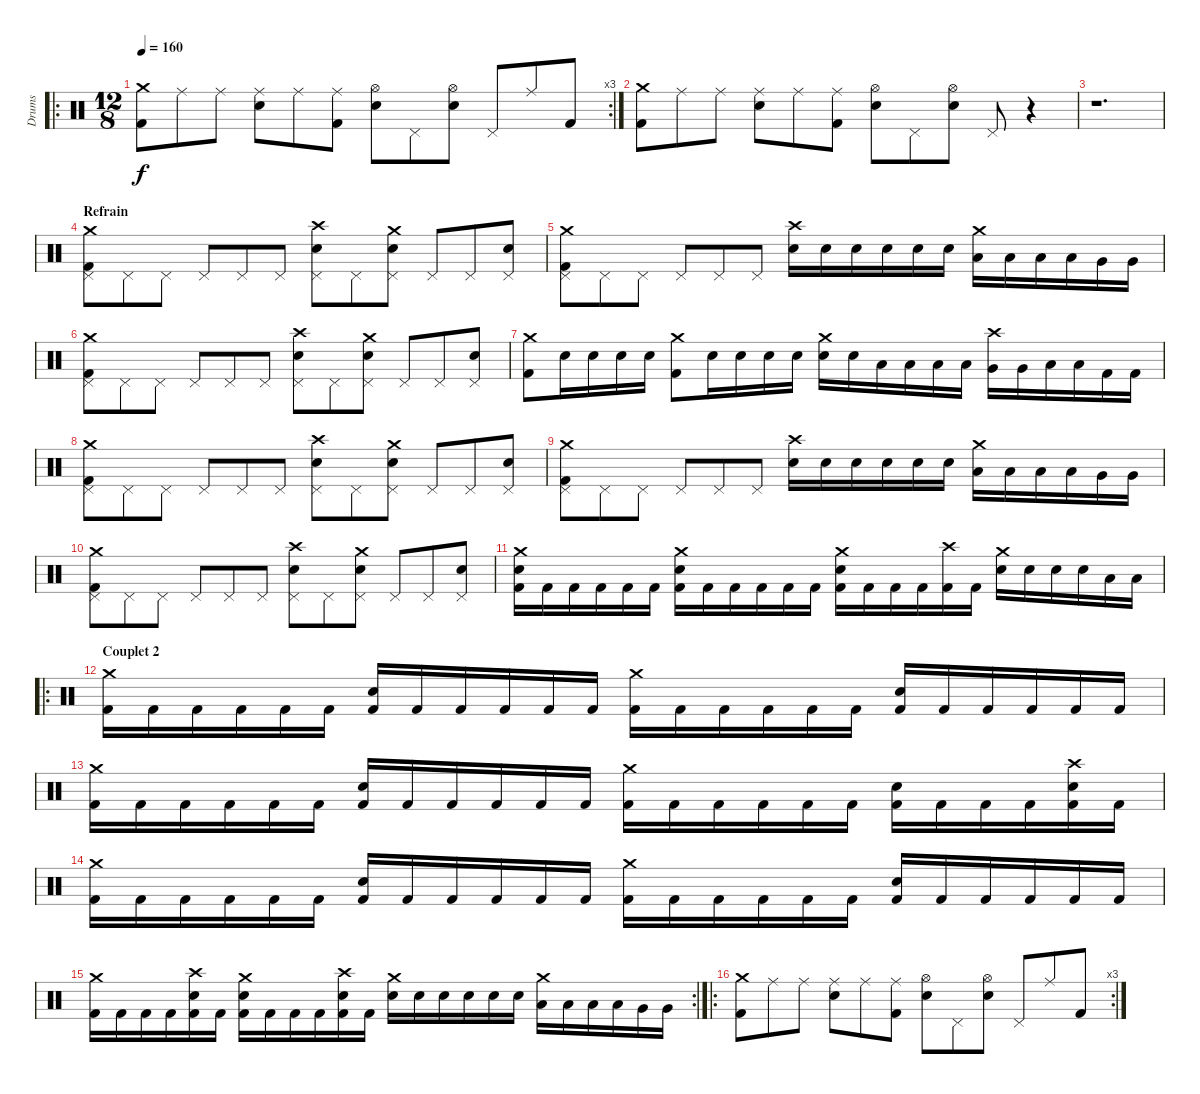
\track ("Drums" "Drums") {instrument percussion}
\staff {score}
\articulation defaults
\ro
\rc 3
\ts (12 8)
\tempo 160
\clef neutral
\ks c
("Crash medium (hit)" "Kick (hit) 2").8{dy f} "Ride (middle)".8 "Ride (middle)".8 ("Ride (middle)" "Electric Snare (hit)").8 "Ride (middle)".8 ("Ride (middle)" "Kick (hit) 2").8 ("Hi-Hat (open)" "Electric Snare (hit)").8 "Pedal Hi-Hat (hit)".8 ("Hi-Hat (open)" "Electric Snare (hit)").8 "Pedal Hi-Hat (hit)".8 "Ride (middle)".8 "Kick (hit) 2".8 |
("Crash medium (hit)" "Kick (hit) 2").8 "Ride (middle)".8 "Ride (middle)".8 ("Ride (middle)" "Electric Snare (hit)").8 "Ride (middle)".8 ("Ride (middle)" "Kick (hit) 2").8 ("Hi-Hat (open)" "Electric Snare (hit)").8 "Pedal Hi-Hat (hit)".8 ("Hi-Hat (open)" "Electric Snare (hit)").8 "Pedal Hi-Hat (hit)".8 r.4 |
r.1{d} |
\section ("" "Refrain")
("Crash medium (hit)" "Pedal Hi-Hat (hit)" "Kick (hit) 2").8 "Pedal Hi-Hat (hit)".8 "Pedal Hi-Hat (hit)".8 "Pedal Hi-Hat (hit)".8 "Pedal Hi-Hat (hit)".8 "Pedal Hi-Hat (hit)".8 ("Crash high (hit)" "Pedal Hi-Hat (hit)" "Electric Snare (hit)").8 "Pedal Hi-Hat (hit)".8 ("Crash medium (hit)" "Pedal Hi-Hat (hit)" "Electric Snare (hit)").8 "Pedal Hi-Hat (hit)".8 "Pedal Hi-Hat (hit)".8 ("Pedal Hi-Hat (hit)" "Electric Snare (hit)").8 |
("Crash medium (hit)" "Pedal Hi-Hat (hit)" "Kick (hit) 2").8 "Pedal Hi-Hat (hit)".8 "Pedal Hi-Hat (hit)".8 "Pedal Hi-Hat (hit)".8 "Pedal Hi-Hat (hit)".8 "Pedal Hi-Hat (hit)".8 ("Crash high (hit)" "Electric Snare (hit)").16 "Electric Snare (hit)".16 "Electric Snare (hit)".16 "Electric Snare (hit)".16 "Electric Snare (hit)".16 "Electric Snare (hit)".16 ("Crash medium (hit)" "Low Tom (hit)").16 "Low Tom (hit)".16 "Low Tom (hit)".16 "Low Tom (hit)".16 "Very Low Tom (hit)".16 "Very Low Tom (hit)".16 |
("Crash medium (hit)" "Pedal Hi-Hat (hit)" "Kick (hit) 2").8 "Pedal Hi-Hat (hit)".8 "Pedal Hi-Hat (hit)".8 "Pedal Hi-Hat (hit)".8 "Pedal Hi-Hat (hit)".8 "Pedal Hi-Hat (hit)".8 ("Crash high (hit)" "Pedal Hi-Hat (hit)" "Electric Snare (hit)").8 "Pedal Hi-Hat (hit)".8 ("Crash medium (hit)" "Pedal Hi-Hat (hit)" "Electric Snare (hit)").8 "Pedal Hi-Hat (hit)".8 "Pedal Hi-Hat (hit)".8 ("Pedal Hi-Hat (hit)" "Electric Snare (hit)").8 |
("Crash medium (hit)" "Kick (hit) 2").8 "Electric Snare (hit)".16 "Electric Snare (hit)".16 "Electric Snare (hit)".16 "Electric Snare (hit)".16 ("Crash medium (hit)" "Kick (hit) 2").8 "Electric Snare (hit)".16 "Electric Snare (hit)".16 "Electric Snare (hit)".16 "Electric Snare (hit)".16 ("Crash medium (hit)" "Electric Snare (hit)").16 "Electric Snare (hit)".16 "Low Tom (hit)".16 "Low Tom (hit)".16 "Low Tom (hit)".16 "Low Tom (hit)".16 ("Crash high (hit)" "Very Low Tom (hit)").16 "Very Low Tom (hit)".16 "Low Floor Tom (hit)".16 "Low Floor Tom (hit)".16 "Kick (hit) 2".16 "Kick (hit) 2".16 |
("Crash medium (hit)" "Pedal Hi-Hat (hit)" "Kick (hit) 2").8 "Pedal Hi-Hat (hit)".8 "Pedal Hi-Hat (hit)".8 "Pedal Hi-Hat (hit)".8 "Pedal Hi-Hat (hit)".8 "Pedal Hi-Hat (hit)".8 ("Crash high (hit)" "Pedal Hi-Hat (hit)" "Electric Snare (hit)").8 "Pedal Hi-Hat (hit)".8 ("Crash medium (hit)" "Pedal Hi-Hat (hit)" "Electric Snare (hit)").8 "Pedal Hi-Hat (hit)".8 "Pedal Hi-Hat (hit)".8 ("Pedal Hi-Hat (hit)" "Electric Snare (hit)").8 |
("Crash medium (hit)" "Pedal Hi-Hat (hit)" "Kick (hit) 2").8 "Pedal Hi-Hat (hit)".8 "Pedal Hi-Hat (hit)".8 "Pedal Hi-Hat (hit)".8 "Pedal Hi-Hat (hit)".8 "Pedal Hi-Hat (hit)".8 ("Crash high (hit)" "Electric Snare (hit)").16 "Electric Snare (hit)".16 "Electric Snare (hit)".16 "Electric Snare (hit)".16 "Electric Snare (hit)".16 "Electric Snare (hit)".16 ("Crash medium (hit)" "Low Tom (hit)").16 "Low Tom (hit)".16 "Low Tom (hit)".16 "Low Tom (hit)".16 "Very Low Tom (hit)".16 "Very Low Tom (hit)".16 |
("Crash medium (hit)" "Pedal Hi-Hat (hit)" "Kick (hit) 2").8 "Pedal Hi-Hat (hit)".8 "Pedal Hi-Hat (hit)".8 "Pedal Hi-Hat (hit)".8 "Pedal Hi-Hat (hit)".8 "Pedal Hi-Hat (hit)".8 ("Crash high (hit)" "Pedal Hi-Hat (hit)" "Electric Snare (hit)").8 "Pedal Hi-Hat (hit)".8 ("Crash medium (hit)" "Pedal Hi-Hat (hit)" "Electric Snare (hit)").8 "Pedal Hi-Hat (hit)".8 "Pedal Hi-Hat (hit)".8 ("Pedal Hi-Hat (hit)" "Electric Snare (hit)").8 |
("Crash medium (hit)" "Electric Snare (hit)" "Kick (hit) 2").16 "Kick (hit) 2".16 "Kick (hit) 2".16 "Kick (hit) 2".16 "Kick (hit) 2".16 "Kick (hit) 2".16 ("Crash medium (hit)" "Electric Snare (hit)" "Kick (hit) 2").16 "Kick (hit) 2".16 "Kick (hit) 2".16 "Kick (hit) 2".16 "Kick (hit) 2".16 "Kick (hit) 2".16 ("Crash medium (hit)" "Electric Snare (hit)" "Kick (hit) 2").16 "Kick (hit) 2".16 "Kick (hit) 2".16 "Kick (hit) 2".16 ("Crash high (hit)" "Kick (hit) 2").16 "Kick (hit) 2".16 ("Crash medium (hit)" "Electric Snare (hit)").16 "Electric Snare (hit)".16 "Electric Snare (hit)".16 "Electric Snare (hit)".16 "Low Tom (hit)".16 "Low Tom (hit)".16 |
\ro
\section ("" "Couplet 2")
("Crash medium (hit)" "Kick (hit) 2").16 "Kick (hit) 2".16 "Kick (hit) 2".16 "Kick (hit) 2".16 "Kick (hit) 2".16 "Kick (hit) 2".16 ("Electric Snare (hit)" "Kick (hit) 2").16 "Kick (hit) 2".16 "Kick (hit) 2".16 "Kick (hit) 2".16 "Kick (hit) 2".16 "Kick (hit) 2".16 ("Crash medium (hit)" "Kick (hit) 2").16 "Kick (hit) 2".16 "Kick (hit) 2".16 "Kick (hit) 2".16 "Kick (hit) 2".16 "Kick (hit) 2".16 ("Electric Snare (hit)" "Kick (hit) 2").16 "Kick (hit) 2".16 "Kick (hit) 2".16 "Kick (hit) 2".16 "Kick (hit) 2".16 "Kick (hit) 2".16 |
("Crash medium (hit)" "Kick (hit) 2").16 "Kick (hit) 2".16 "Kick (hit) 2".16 "Kick (hit) 2".16 "Kick (hit) 2".16 "Kick (hit) 2".16 ("Electric Snare (hit)" "Kick (hit) 2").16 "Kick (hit) 2".16 "Kick (hit) 2".16 "Kick (hit) 2".16 "Kick (hit) 2".16 "Kick (hit) 2".16 ("Crash medium (hit)" "Kick (hit) 2").16 "Kick (hit) 2".16 "Kick (hit) 2".16 "Kick (hit) 2".16 "Kick (hit) 2".16 "Kick (hit) 2".16 ("Electric Snare (hit)" "Kick (hit) 2").16 "Kick (hit) 2".16 "Kick (hit) 2".16 "Kick (hit) 2".16 ("Crash high (hit)" "Electric Snare (hit)" "Kick (hit) 2").16 "Kick (hit) 2".16 |
("Crash medium (hit)" "Kick (hit) 2").16 "Kick (hit) 2".16 "Kick (hit) 2".16 "Kick (hit) 2".16 "Kick (hit) 2".16 "Kick (hit) 2".16 ("Electric Snare (hit)" "Kick (hit) 2").16 "Kick (hit) 2".16 "Kick (hit) 2".16 "Kick (hit) 2".16 "Kick (hit) 2".16 "Kick (hit) 2".16 ("Crash medium (hit)" "Kick (hit) 2").16 "Kick (hit) 2".16 "Kick (hit) 2".16 "Kick (hit) 2".16 "Kick (hit) 2".16 "Kick (hit) 2".16 ("Electric Snare (hit)" "Kick (hit) 2").16 "Kick (hit) 2".16 "Kick (hit) 2".16 "Kick (hit) 2".16 "Kick (hit) 2".16 "Kick (hit) 2".16 |
\rc 2
("Crash medium (hit)" "Kick (hit) 2").16 "Kick (hit) 2".16 "Kick (hit) 2".16 "Kick (hit) 2".16 ("Crash high (hit)" "Electric Snare (hit)" "Kick (hit) 2").16 "Kick (hit) 2".16 ("Crash medium (hit)" "Electric Snare (hit)" "Kick (hit) 2").16 "Kick (hit) 2".16 "Kick (hit) 2".16 "Kick (hit) 2".16 ("Crash high (hit)" "Electric Snare (hit)" "Kick (hit) 2").16 "Kick (hit) 2".16 ("Crash medium (hit)" "Electric Snare (hit)").16 "Electric Snare (hit)".16 "Electric Snare (hit)".16 "Electric Snare (hit)".16 "Electric Snare (hit)".16 "Electric Snare (hit)".16 ("Crash medium (hit)" "Low Tom (hit)").16 "Low Tom (hit)".16 "Low Tom (hit)".16 "Low Tom (hit)".16 "Very Low Tom (hit)".16 "Very Low Tom (hit)".16 |
\ro
\rc 3
("Crash medium (hit)" "Kick (hit) 2").8 "Ride (middle)".8 "Ride (middle)".8 ("Ride (middle)" "Electric Snare (hit)").8 "Ride (middle)".8 ("Ride (middle)" "Kick (hit) 2").8 ("Hi-Hat (open)" "Electric Snare (hit)").8 "Pedal Hi-Hat (hit)".8 ("Hi-Hat (open)" "Electric Snare (hit)").8 "Pedal Hi-Hat (hit)".8 "Ride (middle)".8 "Kick (hit) 2".8
